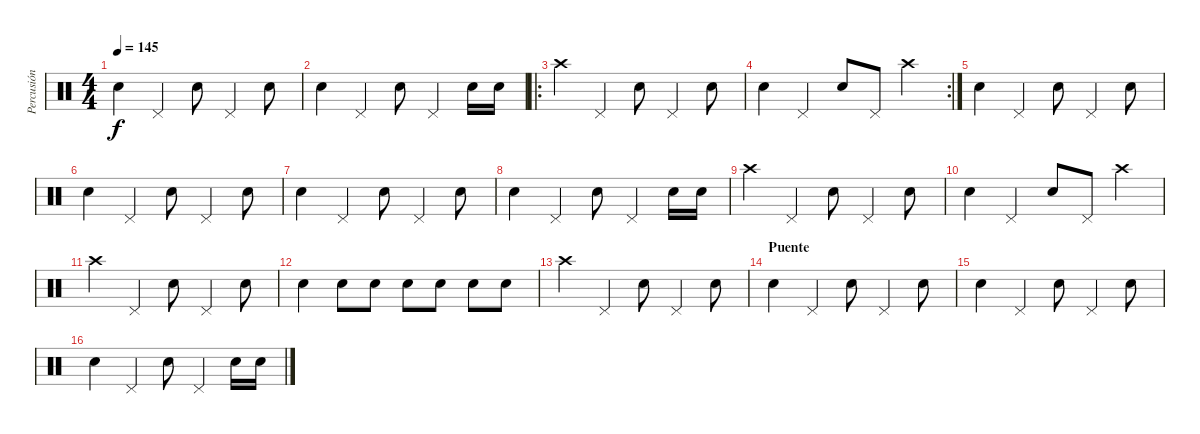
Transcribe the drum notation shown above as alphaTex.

\track ("Percusión" "Percusión") {instrument percussion}
\staff {score}
\articulation defaults
\ts (4 4)
\tempo 145
\clef neutral
\ks c "Electric Snare (hit)".4{dy f} "Pedal Hi-Hat (hit)".4 "Electric Snare (hit)".8 "Pedal Hi-Hat (hit)".4 "Electric Snare (hit)".8
|
"Electric Snare (hit)".4 "Pedal Hi-Hat (hit)".4 "Electric Snare (hit)".8 "Pedal Hi-Hat (hit)".4 "Electric Snare (hit)".16 "Electric Snare (hit)".16 |
\ro "Crash high (hit)".4 "Pedal Hi-Hat (hit)".4 "Electric Snare (hit)".8 "Pedal Hi-Hat (hit)".4 "Electric Snare (hit)".8
|
\rc 2 "Electric Snare (hit)".4 "Pedal Hi-Hat (hit)".4 "Electric Snare (hit)".8 "Pedal Hi-Hat (hit)".8 "Crash high (hit)".4
|
"Electric Snare (hit)".4 "Pedal Hi-Hat (hit)".4 "Electric Snare (hit)".8 "Pedal Hi-Hat (hit)".4 "Electric Snare (hit)".8 |
"Electric Snare (hit)".4 "Pedal Hi-Hat (hit)".4 "Electric Snare (hit)".8 "Pedal Hi-Hat (hit)".4 "Electric Snare (hit)".8 |
"Electric Snare (hit)".4 "Pedal Hi-Hat (hit)".4 "Electric Snare (hit)".8 "Pedal Hi-Hat (hit)".4 "Electric Snare (hit)".8 |
"Electric Snare (hit)".4 "Pedal Hi-Hat (hit)".4 "Electric Snare (hit)".8 "Pedal Hi-Hat (hit)".4 "Electric Snare (hit)".16 "Electric Snare (hit)".16 |
"Crash high (hit)".4 "Pedal Hi-Hat (hit)".4 "Electric Snare (hit)".8 "Pedal Hi-Hat (hit)".4 "Electric Snare (hit)".8 |
"Electric Snare (hit)".4 "Pedal Hi-Hat (hit)".4 "Electric Snare (hit)".8 "Pedal Hi-Hat (hit)".8 "Crash high (hit)".4 |
"Crash high (hit)".4 "Pedal Hi-Hat (hit)".4 "Electric Snare (hit)".8 "Pedal Hi-Hat (hit)".4 "Electric Snare (hit)".8 |
"Electric Snare (hit)".4 "Electric Snare (hit)".8 "Electric Snare (hit)".8 "Electric Snare (hit)".8 "Electric Snare (hit)".8 "Electric Snare (hit)".8 "Electric Snare (hit)".8 |
"Crash high (hit)".4 "Pedal Hi-Hat (hit)".4 "Electric Snare (hit)".8 "Pedal Hi-Hat (hit)".4 "Electric Snare (hit)".8 |
\section ("" "Puente")
"Electric Snare (hit)".4 "Pedal Hi-Hat (hit)".4 "Electric Snare (hit)".8 "Pedal Hi-Hat (hit)".4 "Electric Snare (hit)".8 |
"Electric Snare (hit)".4 "Pedal Hi-Hat (hit)".4 "Electric Snare (hit)".8 "Pedal Hi-Hat (hit)".4 "Electric Snare (hit)".8 |
"Electric Snare (hit)".4 "Pedal Hi-Hat (hit)".4 "Electric Snare (hit)".8 "Pedal Hi-Hat (hit)".4 "Electric Snare (hit)".16 "Electric Snare (hit)".16
